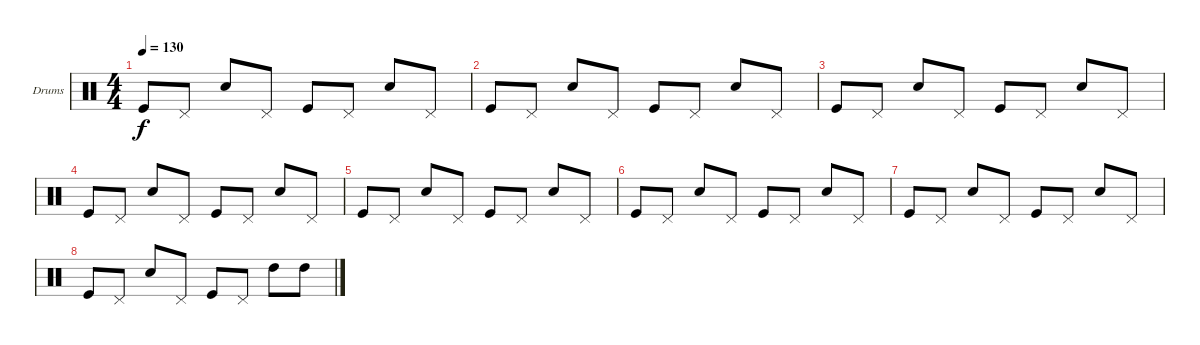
\bracketExtendMode groupsimilarinstruments
\firstSystemTrackNameOrientation horizontal
\otherSystemsTrackNameOrientation horizontal
\track ("Drumkit" "Drums") {instrument percussion}
\staff {score}
\articulation defaults
\ts (4 4)
\tempo 130
\clef neutral
\ks c "Kick (hit)".8{dy f} "Pedal Hi-Hat (hit)".8 "Snare (hit) 2".8 "Pedal Hi-Hat (hit)".8 "Kick (hit)".8 "Pedal Hi-Hat (hit)".8 "Snare (hit) 2".8 "Pedal Hi-Hat (hit)".8
|
"Kick (hit)".8 "Pedal Hi-Hat (hit)".8 "Snare (hit) 2".8 "Pedal Hi-Hat (hit)".8 "Kick (hit)".8 "Pedal Hi-Hat (hit)".8 "Snare (hit) 2".8 "Pedal Hi-Hat (hit)".8 |
"Kick (hit)".8 "Pedal Hi-Hat (hit)".8 "Snare (hit) 2".8 "Pedal Hi-Hat (hit)".8 "Kick (hit)".8 "Pedal Hi-Hat (hit)".8 "Snare (hit) 2".8 "Pedal Hi-Hat (hit)".8 |
"Kick (hit)".8 "Pedal Hi-Hat (hit)".8 "Snare (hit) 2".8 "Pedal Hi-Hat (hit)".8 "Kick (hit)".8 "Pedal Hi-Hat (hit)".8 "Snare (hit) 2".8 "Pedal Hi-Hat (hit)".8 |
"Kick (hit)".8 "Pedal Hi-Hat (hit)".8 "Snare (hit) 2".8 "Pedal Hi-Hat (hit)".8 "Kick (hit)".8 "Pedal Hi-Hat (hit)".8 "Snare (hit) 2".8 "Pedal Hi-Hat (hit)".8 |
"Kick (hit)".8 "Pedal Hi-Hat (hit)".8 "Snare (hit) 2".8 "Pedal Hi-Hat (hit)".8 "Kick (hit)".8 "Pedal Hi-Hat (hit)".8 "Snare (hit) 2".8 "Pedal Hi-Hat (hit)".8 |
"Kick (hit)".8 "Pedal Hi-Hat (hit)".8 "Snare (hit) 2".8 "Pedal Hi-Hat (hit)".8 "Kick (hit)".8 "Pedal Hi-Hat (hit)".8 "Snare (hit) 2".8 "Pedal Hi-Hat (hit)".8 |
"Kick (hit)".8 "Pedal Hi-Hat (hit)".8 "Snare (hit) 2".8 "Pedal Hi-Hat (hit)".8 "Kick (hit)".8 "Pedal Hi-Hat (hit)".8 "High Tom (hit)".8 "High Tom (hit)".8
